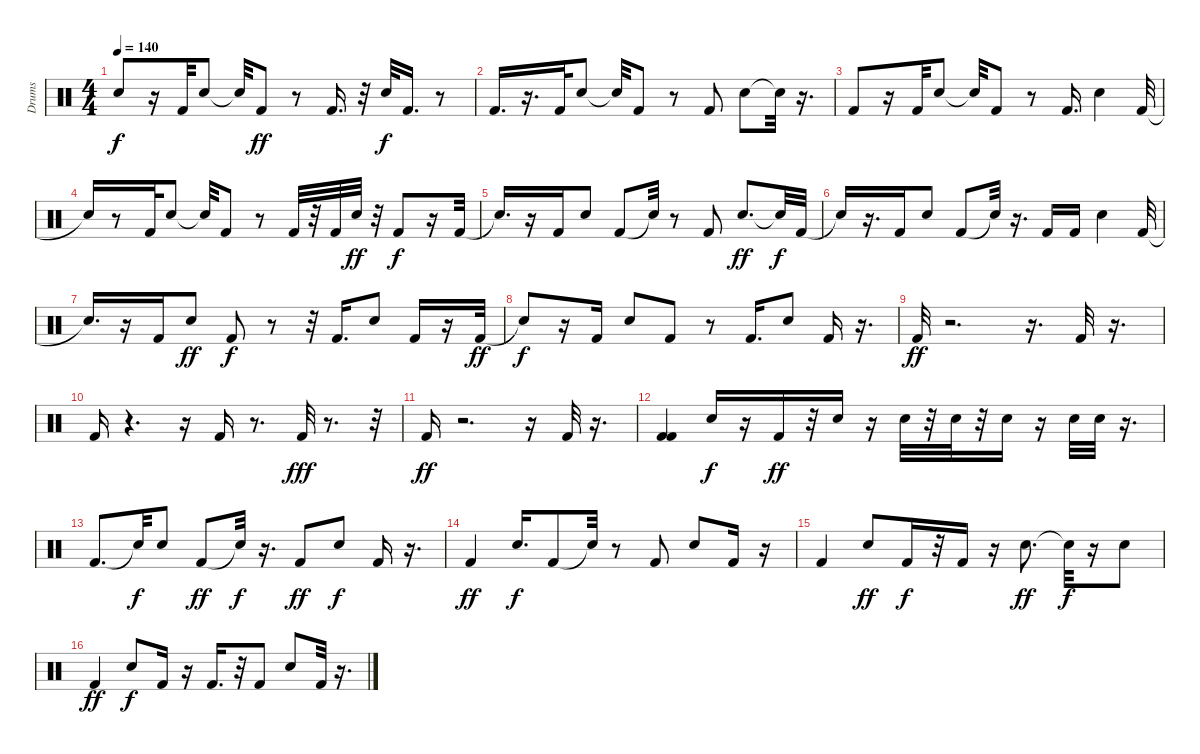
\track ("Drums" "Drums") {instrument percussion}
\staff {score}
\articulation defaults
\ts (4 4)
\tempo 140
\clef neutral
\ks c "Snare (hit)"{t}.8{dy f}
r.16 "Kick (hit) 2".32 "Snare (hit) 2".8 "Snare (hit)"{t}.32 "Kick (hit) 2".8{dy ff} r.8 "Kick (hit) 2".16{d} r.32 "Snare (hit) 2".32{dy f} "Kick (hit) 2".16{d} r.8 |
"Kick (hit) 2".16{d} r.16{d} "Kick (hit) 2".32 "Snare (hit) 2".8 "Snare (hit)"{t}.32 "Kick (hit) 2".8 r.8 "Kick (hit) 2".8 "Snare (hit) 2".8 "Snare (hit)"{t}.32 r.16{d} |
"Kick (hit) 2".8 r.16 "Kick (hit) 2".32 "Snare (hit) 2".8 "Snare (hit)"{t}.32 "Kick (hit) 2".8 r.8 "Kick (hit) 2".16{d} "Snare (hit) 2".4 "Kick (hit) 2".32 |
"Snare (hit)"{t}.16 r.8 "Kick (hit) 2".32 "Snare (hit) 2".8 "Snare (hit)"{t}.32 "Kick (hit) 2".8 r.8 "Kick (hit) 2".32 r.32 "Kick (hit) 2".32 "Snare (hit) 2".32{dy ff} r.32 "Kick (hit) 2".8{dy f} r.16 "Kick (hit) 2".32 |
"Snare (hit)"{t}.16{d} r.16 "Kick (hit) 2".16 "Snare (hit) 2".8 "Kick (hit) 2".8 "Snare (hit)"{t}.32 r.8 "Kick (hit) 2".8 "Snare (hit) 2".8{d dy ff} "Snare (hit)"{t}.32{dy f} "Kick (hit) 2".32 |
"Snare (hit)"{t}.16 r.16{d} "Kick (hit) 2".16 "Snare (hit) 2".8 "Kick (hit) 2".8 "Snare (hit)"{t}.32 r.16{d} "Kick (hit) 2".16 "Kick (hit) 2".16 "Snare (hit) 2".4 "Kick (hit) 2".32 |
"Snare (hit)"{t}.16{d} r.16 "Kick (hit) 2".16 "Snare (hit) 2".8{dy ff} "Kick (hit) 2".8{dy f} r.8 r.32 "Kick (hit) 2".16{d} "Snare (hit) 2".8 "Kick (hit) 2".16 r.16 "Kick (hit) 2".32{dy ff} |
"Snare (hit)"{t}.8{dy f} r.16 "Kick (hit) 2".16 "Snare (hit) 2".8 "Kick (hit) 2".8 r.8 "Kick (hit) 2".16{d} "Snare (hit) 2".8 "Kick (hit) 2".16 r.16{d} |
"Kick (hit) 2".32{dy ff} r.2{d} r.16{d} "Kick (hit) 2".32 r.16{d} |
"Kick (hit) 2".16 r.4{d} r.16 "Kick (hit) 2".16 r.8{d} "Kick (hit) 2".32{dy fff} r.8{d} r.32 |
"Kick (hit) 2".16{dy ff} r.2{d} r.16 "Kick (hit) 2".32 r.16{d} |
("Kick (hit) 2" "Kick (hit) 2").4 "Snare (hit) 2".16{dy f} r.16 "Kick (hit) 2".16{dy ff} r.32 "Snare (hit) 2".16 r.16 "Snare (hit) 2".32 r.32 "Snare (hit) 2".32 r.32 "Snare (hit) 2".16 r.16 "Snare (hit) 2".32 "Snare (hit) 2".32 r.16{d} |
"Kick (hit) 2".8{d} "Snare (hit)"{t}.32{dy f} "Snare (hit) 2".8 "Kick (hit) 2".8{dy ff} "Snare (hit)"{t}.32{dy f} r.16{d} "Kick (hit) 2".8{dy ff} "Snare (hit) 2".8{dy f} "Kick (hit) 2".16 r.16{d} |
"Kick (hit) 2".4{dy ff} "Snare (hit) 2".16{d dy f} "Kick (hit) 2".8 "Snare (hit)"{t}.32 r.8 "Kick (hit) 2".8 "Snare (hit) 2".8 "Kick (hit) 2".16 r.16 |
"Kick (hit) 2".4 "Snare (hit) 2".8{dy ff} "Kick (hit) 2".16{dy f} r.32 "Kick (hit) 2".16 r.16 "Snare (hit) 2".8{d dy ff} "Snare (hit)"{t}.32{dy f} r.16 "Snare (hit) 2".8 |
"Kick (hit) 2".4{dy ff} "Snare (hit) 2".8{dy f} "Kick (hit) 2".16 r.16 "Kick (hit) 2".16{d} r.32 "Kick (hit) 2".8 "Snare (hit) 2".8 "Kick (hit) 2".32 r.16{d}
